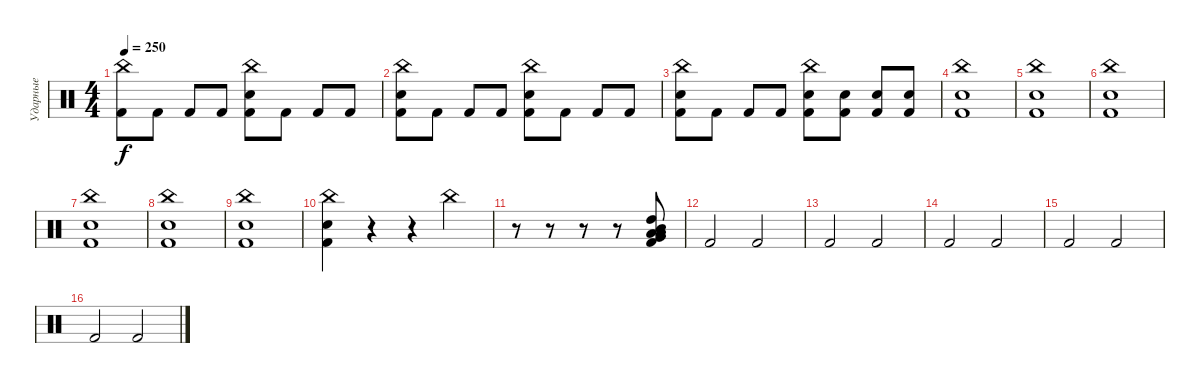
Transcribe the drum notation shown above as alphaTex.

\track ("Ударные" "Ударные") {instrument percussion}
\staff {score}
\articulation defaults
\ts (4 4)
\tempo 250
\clef neutral
\ks c
("China (hit)" "Kick (hit) 2").8{dy f} "Kick (hit) 2".8 "Kick (hit) 2".8 "Kick (hit) 2".8 ("China (hit)" "Snare (hit) 2" "Kick (hit) 2").8 "Kick (hit) 2".8 "Kick (hit) 2".8 "Kick (hit) 2".8 |
("China (hit)" "Snare (hit) 2" "Kick (hit) 2").8 "Kick (hit) 2".8 "Kick (hit) 2".8 "Kick (hit) 2".8 ("China (hit)" "Snare (hit) 2" "Kick (hit) 2").8 "Kick (hit) 2".8 "Kick (hit) 2".8 "Kick (hit) 2".8 |
("China (hit)" "Snare (hit) 2" "Kick (hit) 2").8 "Kick (hit) 2".8 "Kick (hit) 2".8 "Kick (hit) 2".8 ("China (hit)" "Snare (hit) 2" "Kick (hit) 2").8 ("Snare (hit) 2" "Kick (hit) 2").8 ("Snare (hit) 2" "Kick (hit) 2").8 ("Snare (hit) 2" "Kick (hit) 2").8 |
("Kick (hit) 2" "China (hit)" "Snare (hit) 2").1 |
("Kick (hit) 2" "China (hit)" "Snare (hit) 2").1 |
("Kick (hit) 2" "China (hit)" "Snare (hit) 2").1 |
("Kick (hit) 2" "China (hit)" "Snare (hit) 2").1 |
("Kick (hit) 2" "China (hit)" "Snare (hit) 2").1 |
("Kick (hit) 2" "China (hit)" "Snare (hit) 2").1 |
("Kick (hit) 2" "China (hit)" "Snare (hit) 2").4 r.4 r.4 "China (hit)".4 |
r.8 r.8 r.8 r.8 ("Kick (hit) 2" "High Tom (hit)" "Low Floor Tom (hit)" "Very Low Tom (hit)" "Low Tom (hit)" "Mid Tom (hit)").8 |
"Kick (hit) 2".2 "Kick (hit) 2".2 |
"Kick (hit) 2".2 "Kick (hit) 2".2 |
"Kick (hit) 2".2 "Kick (hit) 2".2 |
"Kick (hit) 2".2 "Kick (hit) 2".2 |
"Kick (hit) 2".2 "Kick (hit) 2".2
